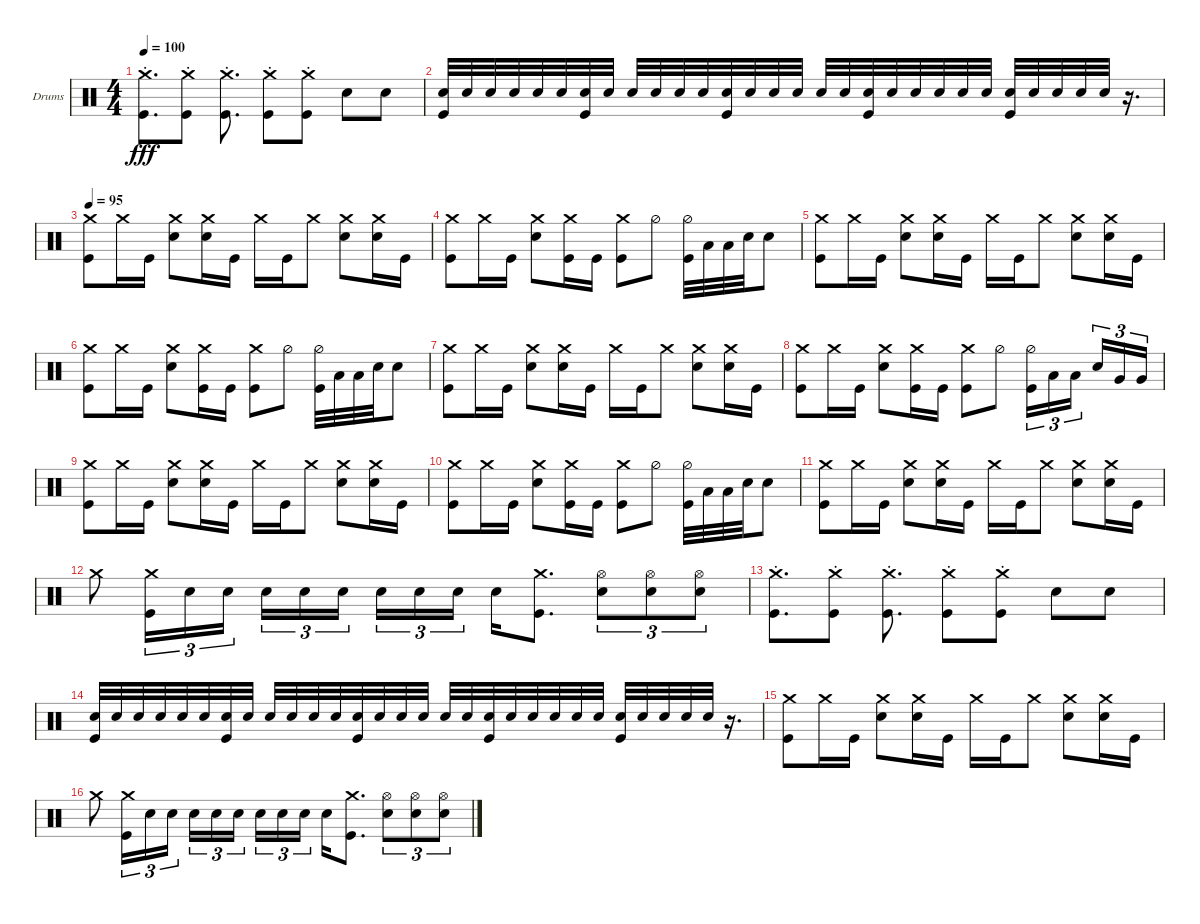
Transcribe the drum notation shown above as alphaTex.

\bracketExtendMode groupsimilarinstruments
\firstSystemTrackNameOrientation horizontal
\otherSystemsTrackNameOrientation horizontal
\track ("Andrew Forsman" "Drums") {instrument percussion}
\staff {score}
\articulation defaults
\ts (4 4)
\tempo 100
\clef neutral
\scale
0.333333
\ks c
("Kick (hit)" "Crash medium (hit)"{st}).8{d dy fff} ("Kick (hit)" "Crash medium (hit)"{st}).8 ("Kick (hit)" "Crash medium (hit)"{st}).8{d} ("Kick (hit)" "Crash medium (hit)"{st}).8 ("Kick (hit)" "Crash medium (hit)"{st}).8 "Snare (hit) 2".8 "Snare (hit) 2".8 |
\scale
0.333333 ("Snare (hit) 2" "Kick (hit)").32 "Snare (hit) 2".32 "Snare (hit) 2".32 "Snare (hit) 2".32 "Snare (hit) 2".32 "Snare (hit) 2".32 ("Snare (hit) 2" "Kick (hit)").32 "Snare (hit) 2".32 "Snare (hit) 2".32 "Snare (hit) 2".32 "Snare (hit) 2".32 "Snare (hit) 2".32 ("Snare (hit) 2" "Kick (hit)").32 "Snare (hit) 2".32 "Snare (hit) 2".32 "Snare (hit) 2".32 "Snare (hit) 2".32 "Snare (hit) 2".32 ("Snare (hit) 2" "Kick (hit)").32 "Snare (hit) 2".32 "Snare (hit) 2".32 "Snare (hit) 2".32 "Snare (hit) 2".32 "Snare (hit) 2".32 ("Snare (hit) 2" "Kick (hit)").32 "Snare (hit) 2".32 "Snare (hit) 2".32 "Snare (hit) 2".32 "Snare (hit) 2".32 r.16{d} |
\tempo 95
\scale
0.333333 ("Kick (hit)" "Crash medium (hit)").8 "Crash medium (hit)".16 "Kick (hit)".16 ("Snare (hit) 2" "Crash medium (hit)").8 ("Snare (hit) 2" "Crash medium (hit)").16 "Kick (hit)".16 "Crash medium (hit)".16 "Kick (hit)".16 "Crash medium (hit)".8 ("Snare (hit) 2" "Crash medium (hit)").8 ("Snare (hit) 2" "Crash medium (hit)").16 "Kick (hit)".16 |
\scale
0.333333 ("Kick (hit)" "Crash medium (hit)").8 "Crash medium (hit)".16 "Kick (hit)".16 ("Snare (hit) 2" "Crash medium (hit)").8 ("Crash medium (hit)" "Kick (hit)").16 "Kick (hit)".16 ("Crash medium (hit)" "Kick (hit)").8 "Hi-Hat (half)".8 ("Kick (hit)" "Hi-Hat (half)").32 "Low Tom (hit)".32 "Low Tom (hit)".32 "Snare (hit) 2".32 "Snare (hit) 2".8 |
\scale
0.333333 ("Kick (hit)" "Crash medium (hit)").8 "Crash medium (hit)".16 "Kick (hit)".16 ("Snare (hit) 2" "Crash medium (hit)").8 ("Snare (hit) 2" "Crash medium (hit)").16 "Kick (hit)".16 "Crash medium (hit)".16 "Kick (hit)".16 "Crash medium (hit)".8 ("Snare (hit) 2" "Crash medium (hit)").8 ("Snare (hit) 2" "Crash medium (hit)").16 "Kick (hit)".16 |
\scale
0.333333 ("Kick (hit)" "Crash medium (hit)").8 "Crash medium (hit)".16 "Kick (hit)".16 ("Snare (hit) 2" "Crash medium (hit)").8 ("Crash medium (hit)" "Kick (hit)").16 "Kick (hit)".16 ("Crash medium (hit)" "Kick (hit)").8 "Hi-Hat (half)".8 ("Kick (hit)" "Hi-Hat (half)").32 "Low Tom (hit)".32 "Low Tom (hit)".32 "Snare (hit) 2".32 "Snare (hit) 2".8 |
\scale
0.333333 ("Kick (hit)" "Crash medium (hit)").8 "Crash medium (hit)".16 "Kick (hit)".16 ("Snare (hit) 2" "Crash medium (hit)").8 ("Snare (hit) 2" "Crash medium (hit)").16 "Kick (hit)".16 "Crash medium (hit)".16 "Kick (hit)".16 "Crash medium (hit)".8 ("Snare (hit) 2" "Crash medium (hit)").8 ("Snare (hit) 2" "Crash medium (hit)").16 "Kick (hit)".16 |
\scale
0.333333 ("Kick (hit)" "Crash medium (hit)").8 "Crash medium (hit)".16 "Kick (hit)".16 ("Snare (hit) 2" "Crash medium (hit)").8 ("Crash medium (hit)" "Kick (hit)").16 "Kick (hit)".16 ("Crash medium (hit)" "Kick (hit)").8 "Hi-Hat (half)".8 ("Kick (hit)" "Hi-Hat (half)").16{tu (3 2)} "Low Tom (hit)".16{tu (3 2)} "Low Tom (hit)".16{tu (3 2)} "Snare (hit) 2".16{tu (3 2)} "Very Low Tom (hit)".16{tu (3 2)} "Very Low Tom (hit)".16{tu (3 2)} |
\scale
0.333333 ("Kick (hit)" "Crash medium (hit)").8 "Crash medium (hit)".16 "Kick (hit)".16 ("Snare (hit) 2" "Crash medium (hit)").8 ("Snare (hit) 2" "Crash medium (hit)").16 "Kick (hit)".16 "Crash medium (hit)".16 "Kick (hit)".16 "Crash medium (hit)".8 ("Snare (hit) 2" "Crash medium (hit)").8 ("Snare (hit) 2" "Crash medium (hit)").16 "Kick (hit)".16 |
\scale
0.333333 ("Kick (hit)" "Crash medium (hit)").8 "Crash medium (hit)".16 "Kick (hit)".16 ("Snare (hit) 2" "Crash medium (hit)").8 ("Crash medium (hit)" "Kick (hit)").16 "Kick (hit)".16 ("Crash medium (hit)" "Kick (hit)").8 "Hi-Hat (half)".8 ("Kick (hit)" "Hi-Hat (half)").32 "Low Tom (hit)".32 "Low Tom (hit)".32 "Snare (hit) 2".32 "Snare (hit) 2".8 |
\scale
0.333333 ("Kick (hit)" "Crash medium (hit)").8 "Crash medium (hit)".16 "Kick (hit)".16 ("Snare (hit) 2" "Crash medium (hit)").8 ("Snare (hit) 2" "Crash medium (hit)").16 "Kick (hit)".16 "Crash medium (hit)".16 "Kick (hit)".16 "Crash medium (hit)".8 ("Snare (hit) 2" "Crash medium (hit)").8 ("Snare (hit) 2" "Crash medium (hit)").16 "Kick (hit)".16 |
\scale
0.333333 "Crash medium (hit)".8 ("Kick (hit)" "Crash medium (hit)").16{tu (3 2)} "Snare (hit) 2".16{tu (3 2)} "Snare (hit) 2".16{tu (3 2)} "Snare (hit) 2".16{tu (3 2)} "Snare (hit) 2".16{tu (3 2)} "Snare (hit) 2".16{tu (3 2)} "Snare (hit) 2".16{tu (3 2)} "Snare (hit) 2".16{tu (3 2)} "Snare (hit) 2".16{tu (3 2)} "Snare (hit) 2".16 ("Kick (hit)" "Crash medium (hit)").8{d} ("Snare (hit) 2" "Hi-Hat (open)").8{tu (3 2)} ("Snare (hit) 2" "Hi-Hat (open)").8{tu (3 2)} ("Snare (hit) 2" "Hi-Hat (open)").8{tu (3 2)} |
\scale
0.333333 ("Kick (hit)" "Crash medium (hit)"{st}).8{d} ("Kick (hit)" "Crash medium (hit)"{st}).8 ("Kick (hit)" "Crash medium (hit)"{st}).8{d} ("Kick (hit)" "Crash medium (hit)"{st}).8 ("Kick (hit)" "Crash medium (hit)"{st}).8 "Snare (hit) 2".8 "Snare (hit) 2".8 |
\scale
0.333333 ("Snare (hit) 2" "Kick (hit)").32 "Snare (hit) 2".32 "Snare (hit) 2".32 "Snare (hit) 2".32 "Snare (hit) 2".32 "Snare (hit) 2".32 ("Snare (hit) 2" "Kick (hit)").32 "Snare (hit) 2".32 "Snare (hit) 2".32 "Snare (hit) 2".32 "Snare (hit) 2".32 "Snare (hit) 2".32 ("Snare (hit) 2" "Kick (hit)").32 "Snare (hit) 2".32 "Snare (hit) 2".32 "Snare (hit) 2".32 "Snare (hit) 2".32 "Snare (hit) 2".32 ("Snare (hit) 2" "Kick (hit)").32 "Snare (hit) 2".32 "Snare (hit) 2".32 "Snare (hit) 2".32 "Snare (hit) 2".32 "Snare (hit) 2".32 ("Snare (hit) 2" "Kick (hit)").32 "Snare (hit) 2".32 "Snare (hit) 2".32 "Snare (hit) 2".32 "Snare (hit) 2".32 r.16{d} |
\scale
0.333333 ("Kick (hit)" "Crash medium (hit)").8 "Crash medium (hit)".16 "Kick (hit)".16 ("Snare (hit) 2" "Crash medium (hit)").8 ("Snare (hit) 2" "Crash medium (hit)").16 "Kick (hit)".16 "Crash medium (hit)".16 "Kick (hit)".16 "Crash medium (hit)".8 ("Snare (hit) 2" "Crash medium (hit)").8 ("Snare (hit) 2" "Crash medium (hit)").16 "Kick (hit)".16 |
\scale
0.333333 "Crash medium (hit)".8 ("Kick (hit)" "Crash medium (hit)").16{tu (3 2)} "Snare (hit) 2".16{tu (3 2)} "Snare (hit) 2".16{tu (3 2)} "Snare (hit) 2".16{tu (3 2)} "Snare (hit) 2".16{tu (3 2)} "Snare (hit) 2".16{tu (3 2)} "Snare (hit) 2".16{tu (3 2)} "Snare (hit) 2".16{tu (3 2)} "Snare (hit) 2".16{tu (3 2)} "Snare (hit) 2".16 ("Kick (hit)" "Crash medium (hit)").8{d} ("Snare (hit) 2" "Hi-Hat (open)").8{tu (3 2)} ("Snare (hit) 2" "Hi-Hat (open)").8{tu (3 2)} ("Snare (hit) 2" "Hi-Hat (open)").8{tu (3 2)}
